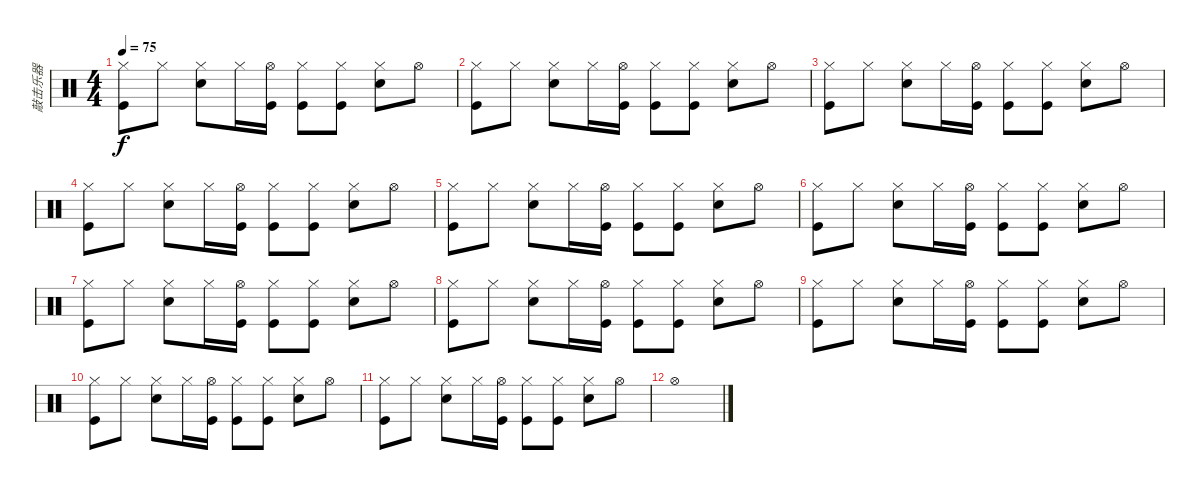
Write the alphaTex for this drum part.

\track ("敲击乐器" "敲击乐器") {instrument percussion}
\staff {score}
\articulation defaults
\ts (4 4)
\tempo 75
\clef neutral
\ks c
("Hi-Hat (closed)" "Kick (hit)").8{dy f} "Hi-Hat (closed)".8 ("Hi-Hat (closed)" "Snare (hit) 2").8 "Hi-Hat (closed)".16 ("Hi-Hat (open)" "Kick (hit)").16 ("Hi-Hat (closed)" "Kick (hit)").8 ("Hi-Hat (closed)" "Kick (hit)").8 ("Hi-Hat (closed)" "Snare (hit) 2").8 "Hi-Hat (open)".8 |
("Hi-Hat (closed)" "Kick (hit)").8 "Hi-Hat (closed)".8 ("Hi-Hat (closed)" "Snare (hit) 2").8 "Hi-Hat (closed)".16 ("Hi-Hat (open)" "Kick (hit)").16 ("Hi-Hat (closed)" "Kick (hit)").8 ("Hi-Hat (closed)" "Kick (hit)").8 ("Hi-Hat (closed)" "Snare (hit) 2").8 "Hi-Hat (open)".8 |
("Hi-Hat (closed)" "Kick (hit)").8 "Hi-Hat (closed)".8 ("Hi-Hat (closed)" "Snare (hit) 2").8 "Hi-Hat (closed)".16 ("Hi-Hat (open)" "Kick (hit)").16 ("Hi-Hat (closed)" "Kick (hit)").8 ("Hi-Hat (closed)" "Kick (hit)").8 ("Hi-Hat (closed)" "Snare (hit) 2").8 "Hi-Hat (open)".8 |
("Hi-Hat (closed)" "Kick (hit)").8 "Hi-Hat (closed)".8 ("Hi-Hat (closed)" "Snare (hit) 2").8 "Hi-Hat (closed)".16 ("Hi-Hat (open)" "Kick (hit)").16 ("Hi-Hat (closed)" "Kick (hit)").8 ("Hi-Hat (closed)" "Kick (hit)").8 ("Hi-Hat (closed)" "Snare (hit) 2").8 "Hi-Hat (open)".8 |
("Hi-Hat (closed)" "Kick (hit)").8 "Hi-Hat (closed)".8 ("Hi-Hat (closed)" "Snare (hit) 2").8 "Hi-Hat (closed)".16 ("Hi-Hat (open)" "Kick (hit)").16 ("Hi-Hat (closed)" "Kick (hit)").8 ("Hi-Hat (closed)" "Kick (hit)").8 ("Hi-Hat (closed)" "Snare (hit) 2").8 "Hi-Hat (open)".8 |
("Hi-Hat (closed)" "Kick (hit)").8 "Hi-Hat (closed)".8 ("Hi-Hat (closed)" "Snare (hit) 2").8 "Hi-Hat (closed)".16 ("Hi-Hat (open)" "Kick (hit)").16 ("Hi-Hat (closed)" "Kick (hit)").8 ("Hi-Hat (closed)" "Kick (hit)").8 ("Hi-Hat (closed)" "Snare (hit) 2").8 "Hi-Hat (open)".8 |
("Hi-Hat (closed)" "Kick (hit)").8 "Hi-Hat (closed)".8 ("Hi-Hat (closed)" "Snare (hit) 2").8 "Hi-Hat (closed)".16 ("Hi-Hat (open)" "Kick (hit)").16 ("Hi-Hat (closed)" "Kick (hit)").8 ("Hi-Hat (closed)" "Kick (hit)").8 ("Hi-Hat (closed)" "Snare (hit) 2").8 "Hi-Hat (open)".8 |
("Hi-Hat (closed)" "Kick (hit)").8 "Hi-Hat (closed)".8 ("Hi-Hat (closed)" "Snare (hit) 2").8 "Hi-Hat (closed)".16 ("Hi-Hat (open)" "Kick (hit)").16 ("Hi-Hat (closed)" "Kick (hit)").8 ("Hi-Hat (closed)" "Kick (hit)").8 ("Hi-Hat (closed)" "Snare (hit) 2").8 "Hi-Hat (open)".8 |
("Hi-Hat (closed)" "Kick (hit)").8 "Hi-Hat (closed)".8 ("Hi-Hat (closed)" "Snare (hit) 2").8 "Hi-Hat (closed)".16 ("Hi-Hat (open)" "Kick (hit)").16 ("Hi-Hat (closed)" "Kick (hit)").8 ("Hi-Hat (closed)" "Kick (hit)").8 ("Hi-Hat (closed)" "Snare (hit) 2").8 "Hi-Hat (open)".8 |
("Hi-Hat (closed)" "Kick (hit)").8 "Hi-Hat (closed)".8 ("Hi-Hat (closed)" "Snare (hit) 2").8 "Hi-Hat (closed)".16 ("Hi-Hat (open)" "Kick (hit)").16 ("Hi-Hat (closed)" "Kick (hit)").8 ("Hi-Hat (closed)" "Kick (hit)").8 ("Hi-Hat (closed)" "Snare (hit) 2").8 "Hi-Hat (open)".8 |
("Hi-Hat (closed)" "Kick (hit)").8 "Hi-Hat (closed)".8 ("Hi-Hat (closed)" "Snare (hit) 2").8 "Hi-Hat (closed)".16 ("Hi-Hat (open)" "Kick (hit)").16 ("Hi-Hat (closed)" "Kick (hit)").8 ("Hi-Hat (closed)" "Kick (hit)").8 ("Hi-Hat (closed)" "Snare (hit) 2").8 "Hi-Hat (open)".8 |
"Hi-Hat (open)".1
